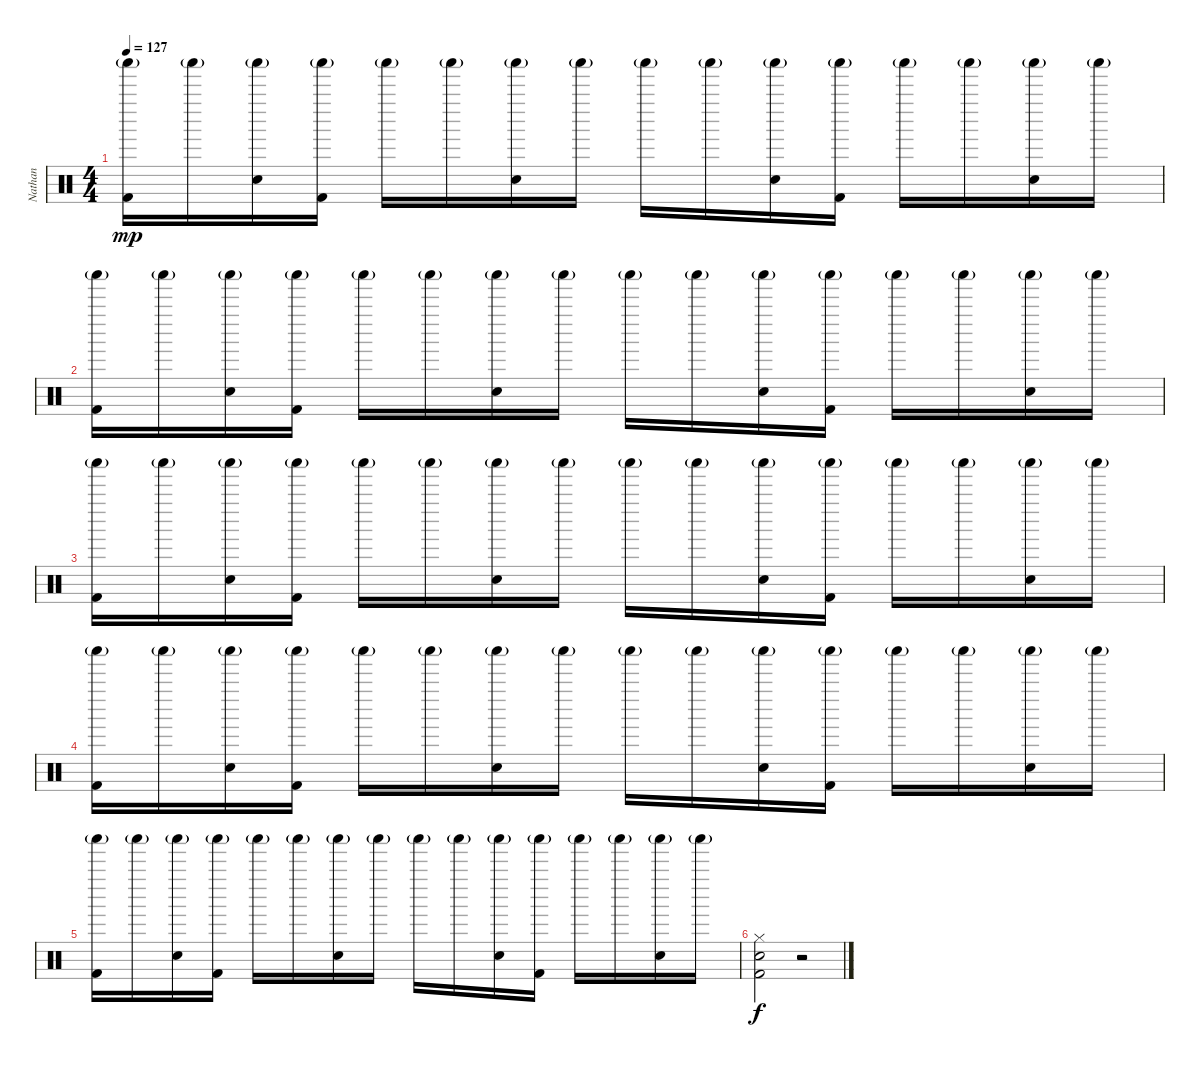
\track ("Nathan" "Nathan") {instrument percussion}
\staff {score}
\articulation defaults
\ts (4 4)
\tempo 127
\clef neutral
\ks c
("Shaker (hit)"{g} "Kick (hit) 2").16{dy mp} "Shaker (hit)"{g}.16 ("Shaker (hit)"{g} "Electric Snare (hit)").16 ("Shaker (hit)"{g} "Kick (hit) 2").16 "Shaker (hit)"{g}.16 "Shaker (hit)"{g}.16 ("Shaker (hit)"{g} "Electric Snare (hit)").16 "Shaker (hit)"{g}.16 "Shaker (hit)"{g}.16 "Shaker (hit)"{g}.16 ("Shaker (hit)"{g} "Electric Snare (hit)").16 ("Shaker (hit)"{g} "Kick (hit) 2").16 "Shaker (hit)"{g}.16 "Shaker (hit)"{g}.16 ("Shaker (hit)"{g} "Electric Snare (hit)").16 "Shaker (hit)"{g}.16 |
("Shaker (hit)"{g} "Kick (hit) 2").16 "Shaker (hit)"{g}.16 ("Shaker (hit)"{g} "Electric Snare (hit)").16 ("Shaker (hit)"{g} "Kick (hit) 2").16 "Shaker (hit)"{g}.16 "Shaker (hit)"{g}.16 ("Shaker (hit)"{g} "Electric Snare (hit)").16 "Shaker (hit)"{g}.16 "Shaker (hit)"{g}.16 "Shaker (hit)"{g}.16 ("Shaker (hit)"{g} "Electric Snare (hit)").16 ("Shaker (hit)"{g} "Kick (hit) 2").16 "Shaker (hit)"{g}.16 "Shaker (hit)"{g}.16 ("Shaker (hit)"{g} "Electric Snare (hit)").16 "Shaker (hit)"{g}.16 |
("Shaker (hit)"{g} "Kick (hit) 2").16 "Shaker (hit)"{g}.16 ("Shaker (hit)"{g} "Electric Snare (hit)").16 ("Shaker (hit)"{g} "Kick (hit) 2").16 "Shaker (hit)"{g}.16 "Shaker (hit)"{g}.16 ("Shaker (hit)"{g} "Electric Snare (hit)").16 "Shaker (hit)"{g}.16 "Shaker (hit)"{g}.16 "Shaker (hit)"{g}.16 ("Shaker (hit)"{g} "Electric Snare (hit)").16 ("Shaker (hit)"{g} "Kick (hit) 2").16 "Shaker (hit)"{g}.16 "Shaker (hit)"{g}.16 ("Shaker (hit)"{g} "Electric Snare (hit)").16 "Shaker (hit)"{g}.16 |
("Shaker (hit)"{g} "Kick (hit) 2").16 "Shaker (hit)"{g}.16 ("Shaker (hit)"{g} "Electric Snare (hit)").16 ("Shaker (hit)"{g} "Kick (hit) 2").16 "Shaker (hit)"{g}.16 "Shaker (hit)"{g}.16 ("Shaker (hit)"{g} "Electric Snare (hit)").16 "Shaker (hit)"{g}.16 "Shaker (hit)"{g}.16 "Shaker (hit)"{g}.16 ("Shaker (hit)"{g} "Electric Snare (hit)").16 ("Shaker (hit)"{g} "Kick (hit) 2").16 "Shaker (hit)"{g}.16 "Shaker (hit)"{g}.16 ("Shaker (hit)"{g} "Electric Snare (hit)").16 "Shaker (hit)"{g}.16 |
("Shaker (hit)"{g} "Kick (hit) 2").16 "Shaker (hit)"{g}.16 ("Shaker (hit)"{g} "Electric Snare (hit)").16 ("Shaker (hit)"{g} "Kick (hit) 2").16 "Shaker (hit)"{g}.16 "Shaker (hit)"{g}.16 ("Shaker (hit)"{g} "Electric Snare (hit)").16 "Shaker (hit)"{g}.16 "Shaker (hit)"{g}.16 "Shaker (hit)"{g}.16 ("Shaker (hit)"{g} "Electric Snare (hit)").16 ("Shaker (hit)"{g} "Kick (hit) 2").16 "Shaker (hit)"{g}.16 "Shaker (hit)"{g}.16 ("Shaker (hit)"{g} "Electric Snare (hit)").16 "Shaker (hit)"{g}.16 |
("Hi-Hat (closed)" "Electric Snare (hit)" "Kick (hit) 2").2{dy f} r.2
